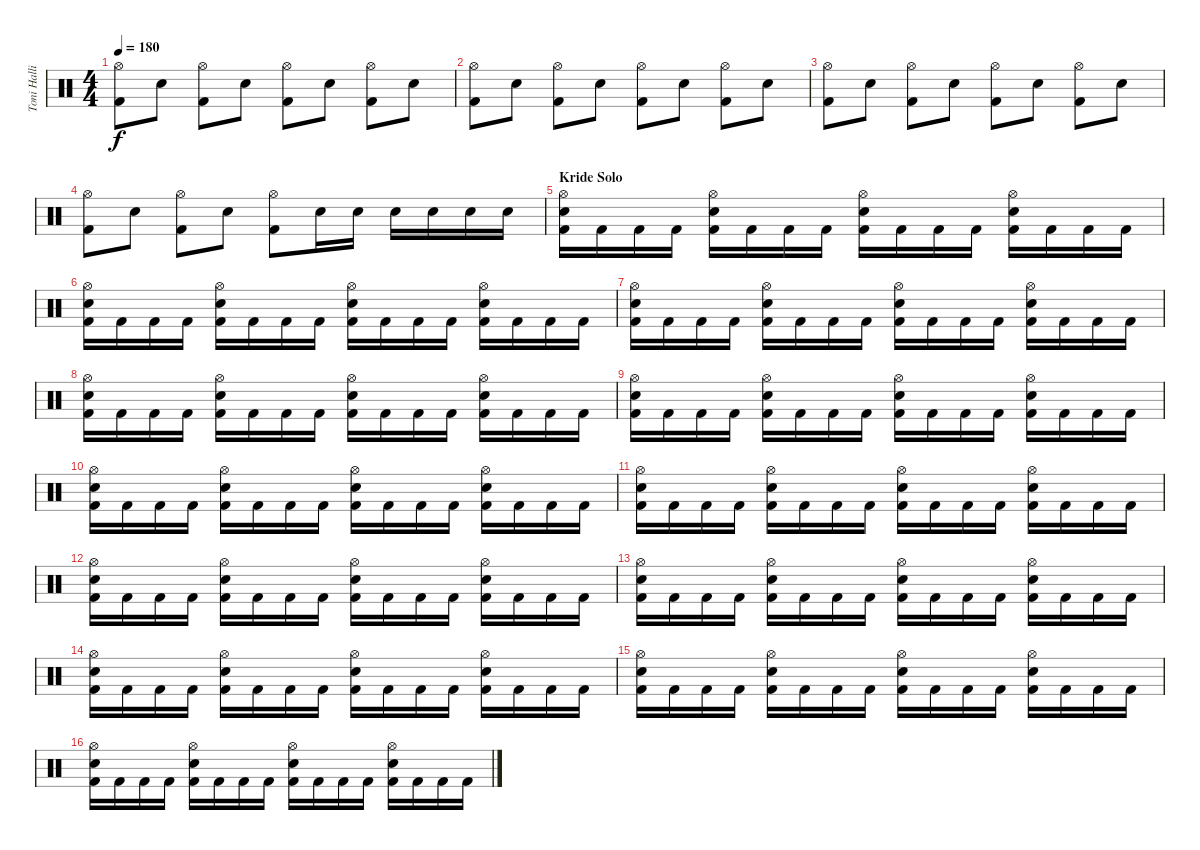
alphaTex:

\track ("Toni Hallio" "Toni Halli") {instrument percussion}
\staff {score}
\articulation defaults
\ts (4 4)
\tempo 180
\clef neutral
\ks c
("Hi-Hat (open)" "Kick (hit) 2").8{dy f} "Electric Snare (hit)".8 ("Hi-Hat (open)" "Kick (hit) 2").8 "Electric Snare (hit)".8 ("Hi-Hat (open)" "Kick (hit) 2").8 "Electric Snare (hit)".8 ("Hi-Hat (open)" "Kick (hit) 2").8 "Electric Snare (hit)".8 |
("Hi-Hat (open)" "Kick (hit) 2").8 "Electric Snare (hit)".8 ("Hi-Hat (open)" "Kick (hit) 2").8 "Electric Snare (hit)".8 ("Hi-Hat (open)" "Kick (hit) 2").8 "Electric Snare (hit)".8 ("Hi-Hat (open)" "Kick (hit) 2").8 "Electric Snare (hit)".8 |
("Hi-Hat (open)" "Kick (hit) 2").8 "Electric Snare (hit)".8 ("Hi-Hat (open)" "Kick (hit) 2").8 "Electric Snare (hit)".8 ("Hi-Hat (open)" "Kick (hit) 2").8 "Electric Snare (hit)".8 ("Hi-Hat (open)" "Kick (hit) 2").8 "Electric Snare (hit)".8 |
("Hi-Hat (open)" "Kick (hit) 2").8 "Electric Snare (hit)".8 ("Hi-Hat (open)" "Kick (hit) 2").8 "Electric Snare (hit)".8 ("Hi-Hat (open)" "Kick (hit) 2").8 "Electric Snare (hit)".16 "Electric Snare (hit)".16 "Electric Snare (hit)".16 "Electric Snare (hit)".16 "Electric Snare (hit)".16 "Electric Snare (hit)".16 |
\section ("" "Kride Solo")
("Hi-Hat (open)" "Electric Snare (hit)" "Kick (hit) 2").16 "Kick (hit) 2".16 "Kick (hit) 2".16 "Kick (hit) 2".16 ("Hi-Hat (open)" "Electric Snare (hit)" "Kick (hit) 2").16 "Kick (hit) 2".16 "Kick (hit) 2".16 "Kick (hit) 2".16 ("Hi-Hat (open)" "Electric Snare (hit)" "Kick (hit) 2").16 "Kick (hit) 2".16 "Kick (hit) 2".16 "Kick (hit) 2".16 ("Hi-Hat (open)" "Electric Snare (hit)" "Kick (hit) 2").16 "Kick (hit) 2".16 "Kick (hit) 2".16 "Kick (hit) 2".16 |
("Hi-Hat (open)" "Electric Snare (hit)" "Kick (hit) 2").16 "Kick (hit) 2".16 "Kick (hit) 2".16 "Kick (hit) 2".16 ("Hi-Hat (open)" "Electric Snare (hit)" "Kick (hit) 2").16 "Kick (hit) 2".16 "Kick (hit) 2".16 "Kick (hit) 2".16 ("Hi-Hat (open)" "Electric Snare (hit)" "Kick (hit) 2").16 "Kick (hit) 2".16 "Kick (hit) 2".16 "Kick (hit) 2".16 ("Hi-Hat (open)" "Electric Snare (hit)" "Kick (hit) 2").16 "Kick (hit) 2".16 "Kick (hit) 2".16 "Kick (hit) 2".16 |
("Hi-Hat (open)" "Electric Snare (hit)" "Kick (hit) 2").16 "Kick (hit) 2".16 "Kick (hit) 2".16 "Kick (hit) 2".16 ("Hi-Hat (open)" "Electric Snare (hit)" "Kick (hit) 2").16 "Kick (hit) 2".16 "Kick (hit) 2".16 "Kick (hit) 2".16 ("Hi-Hat (open)" "Electric Snare (hit)" "Kick (hit) 2").16 "Kick (hit) 2".16 "Kick (hit) 2".16 "Kick (hit) 2".16 ("Hi-Hat (open)" "Electric Snare (hit)" "Kick (hit) 2").16 "Kick (hit) 2".16 "Kick (hit) 2".16 "Kick (hit) 2".16 |
("Hi-Hat (open)" "Electric Snare (hit)" "Kick (hit) 2").16 "Kick (hit) 2".16 "Kick (hit) 2".16 "Kick (hit) 2".16 ("Hi-Hat (open)" "Electric Snare (hit)" "Kick (hit) 2").16 "Kick (hit) 2".16 "Kick (hit) 2".16 "Kick (hit) 2".16 ("Hi-Hat (open)" "Electric Snare (hit)" "Kick (hit) 2").16 "Kick (hit) 2".16 "Kick (hit) 2".16 "Kick (hit) 2".16 ("Hi-Hat (open)" "Electric Snare (hit)" "Kick (hit) 2").16 "Kick (hit) 2".16 "Kick (hit) 2".16 "Kick (hit) 2".16 |
("Hi-Hat (open)" "Electric Snare (hit)" "Kick (hit) 2").16 "Kick (hit) 2".16 "Kick (hit) 2".16 "Kick (hit) 2".16 ("Hi-Hat (open)" "Electric Snare (hit)" "Kick (hit) 2").16 "Kick (hit) 2".16 "Kick (hit) 2".16 "Kick (hit) 2".16 ("Hi-Hat (open)" "Electric Snare (hit)" "Kick (hit) 2").16 "Kick (hit) 2".16 "Kick (hit) 2".16 "Kick (hit) 2".16 ("Hi-Hat (open)" "Electric Snare (hit)" "Kick (hit) 2").16 "Kick (hit) 2".16 "Kick (hit) 2".16 "Kick (hit) 2".16 |
("Hi-Hat (open)" "Electric Snare (hit)" "Kick (hit) 2").16 "Kick (hit) 2".16 "Kick (hit) 2".16 "Kick (hit) 2".16 ("Hi-Hat (open)" "Electric Snare (hit)" "Kick (hit) 2").16 "Kick (hit) 2".16 "Kick (hit) 2".16 "Kick (hit) 2".16 ("Hi-Hat (open)" "Electric Snare (hit)" "Kick (hit) 2").16 "Kick (hit) 2".16 "Kick (hit) 2".16 "Kick (hit) 2".16 ("Hi-Hat (open)" "Electric Snare (hit)" "Kick (hit) 2").16 "Kick (hit) 2".16 "Kick (hit) 2".16 "Kick (hit) 2".16 |
("Hi-Hat (open)" "Electric Snare (hit)" "Kick (hit) 2").16 "Kick (hit) 2".16 "Kick (hit) 2".16 "Kick (hit) 2".16 ("Hi-Hat (open)" "Electric Snare (hit)" "Kick (hit) 2").16 "Kick (hit) 2".16 "Kick (hit) 2".16 "Kick (hit) 2".16 ("Hi-Hat (open)" "Electric Snare (hit)" "Kick (hit) 2").16 "Kick (hit) 2".16 "Kick (hit) 2".16 "Kick (hit) 2".16 ("Hi-Hat (open)" "Electric Snare (hit)" "Kick (hit) 2").16 "Kick (hit) 2".16 "Kick (hit) 2".16 "Kick (hit) 2".16 |
("Hi-Hat (open)" "Electric Snare (hit)" "Kick (hit) 2").16 "Kick (hit) 2".16 "Kick (hit) 2".16 "Kick (hit) 2".16 ("Hi-Hat (open)" "Electric Snare (hit)" "Kick (hit) 2").16 "Kick (hit) 2".16 "Kick (hit) 2".16 "Kick (hit) 2".16 ("Hi-Hat (open)" "Electric Snare (hit)" "Kick (hit) 2").16 "Kick (hit) 2".16 "Kick (hit) 2".16 "Kick (hit) 2".16 ("Hi-Hat (open)" "Electric Snare (hit)" "Kick (hit) 2").16 "Kick (hit) 2".16 "Kick (hit) 2".16 "Kick (hit) 2".16 |
("Hi-Hat (open)" "Electric Snare (hit)" "Kick (hit) 2").16 "Kick (hit) 2".16 "Kick (hit) 2".16 "Kick (hit) 2".16 ("Hi-Hat (open)" "Electric Snare (hit)" "Kick (hit) 2").16 "Kick (hit) 2".16 "Kick (hit) 2".16 "Kick (hit) 2".16 ("Hi-Hat (open)" "Electric Snare (hit)" "Kick (hit) 2").16 "Kick (hit) 2".16 "Kick (hit) 2".16 "Kick (hit) 2".16 ("Hi-Hat (open)" "Electric Snare (hit)" "Kick (hit) 2").16 "Kick (hit) 2".16 "Kick (hit) 2".16 "Kick (hit) 2".16 |
("Hi-Hat (open)" "Electric Snare (hit)" "Kick (hit) 2").16 "Kick (hit) 2".16 "Kick (hit) 2".16 "Kick (hit) 2".16 ("Hi-Hat (open)" "Electric Snare (hit)" "Kick (hit) 2").16 "Kick (hit) 2".16 "Kick (hit) 2".16 "Kick (hit) 2".16 ("Hi-Hat (open)" "Electric Snare (hit)" "Kick (hit) 2").16 "Kick (hit) 2".16 "Kick (hit) 2".16 "Kick (hit) 2".16 ("Hi-Hat (open)" "Electric Snare (hit)" "Kick (hit) 2").16 "Kick (hit) 2".16 "Kick (hit) 2".16 "Kick (hit) 2".16 |
("Hi-Hat (open)" "Electric Snare (hit)" "Kick (hit) 2").16 "Kick (hit) 2".16 "Kick (hit) 2".16 "Kick (hit) 2".16 ("Hi-Hat (open)" "Electric Snare (hit)" "Kick (hit) 2").16 "Kick (hit) 2".16 "Kick (hit) 2".16 "Kick (hit) 2".16 ("Hi-Hat (open)" "Electric Snare (hit)" "Kick (hit) 2").16 "Kick (hit) 2".16 "Kick (hit) 2".16 "Kick (hit) 2".16 ("Hi-Hat (open)" "Electric Snare (hit)" "Kick (hit) 2").16 "Kick (hit) 2".16 "Kick (hit) 2".16 "Kick (hit) 2".16 |
("Hi-Hat (open)" "Electric Snare (hit)" "Kick (hit) 2").16 "Kick (hit) 2".16 "Kick (hit) 2".16 "Kick (hit) 2".16 ("Hi-Hat (open)" "Electric Snare (hit)" "Kick (hit) 2").16 "Kick (hit) 2".16 "Kick (hit) 2".16 "Kick (hit) 2".16 ("Hi-Hat (open)" "Electric Snare (hit)" "Kick (hit) 2").16 "Kick (hit) 2".16 "Kick (hit) 2".16 "Kick (hit) 2".16 ("Hi-Hat (open)" "Electric Snare (hit)" "Kick (hit) 2").16 "Kick (hit) 2".16 "Kick (hit) 2".16 "Kick (hit) 2".16
